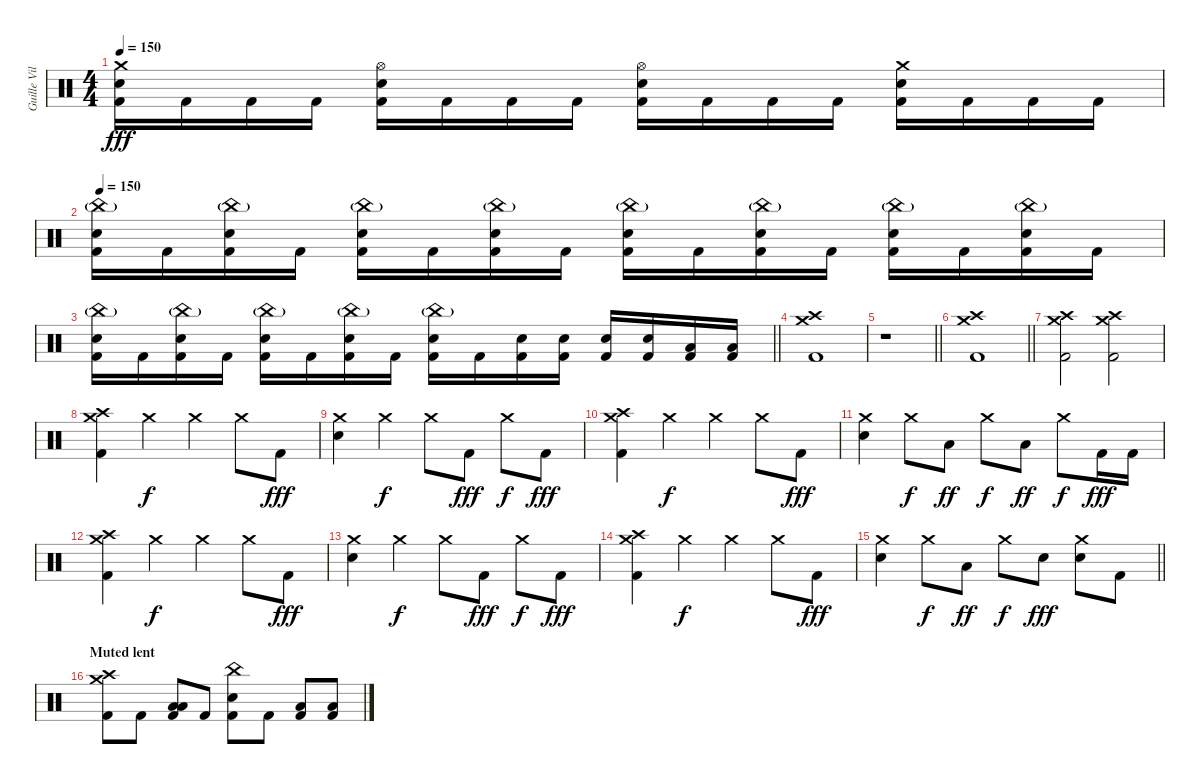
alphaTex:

\track ("Guille Vila" "Guille Vil") {instrument percussion}
\staff {score}
\articulation defaults
\ts (4 4)
\tempo 150
\clef neutral
\ks c
("Crash medium (hit)" "Snare (hit) 2" "Kick (hit) 2").16{dy fff} "Kick (hit) 2".16 "Kick (hit) 2".16 "Kick (hit) 2".16 ("Hi-Hat (open)" "Snare (hit) 2" "Kick (hit) 2").16 "Kick (hit) 2".16 "Kick (hit) 2".16 "Kick (hit) 2".16 ("Hi-Hat (open)" "Snare (hit) 2" "Kick (hit) 2").16 "Kick (hit) 2".16 "Kick (hit) 2".16 "Kick (hit) 2".16 ("Crash medium (hit)" "Snare (hit) 2" "Kick (hit) 2").16 "Kick (hit) 2".16 "Kick (hit) 2".16 "Kick (hit) 2".16 |
\tempo 155
\tempo 150
("China (hit)"{g} "Snare (hit) 2" "Kick (hit) 2").16 "Kick (hit) 2".16 ("China (hit)"{g} "Snare (hit) 2" "Kick (hit) 2").16 "Kick (hit) 2".16 ("China (hit)"{g} "Snare (hit) 2" "Kick (hit) 2").16 "Kick (hit) 2".16 ("China (hit)"{g} "Snare (hit) 2" "Kick (hit) 2").16 "Kick (hit) 2".16 ("China (hit)"{g} "Snare (hit) 2" "Kick (hit) 2").16 "Kick (hit) 2".16 ("China (hit)"{g} "Snare (hit) 2" "Kick (hit) 2").16 "Kick (hit) 2".16 ("China (hit)"{g} "Snare (hit) 2" "Kick (hit) 2").16 "Kick (hit) 2".16 ("China (hit)"{g} "Snare (hit) 2" "Kick (hit) 2").16 "Kick (hit) 2".16 |
\barLineRight lightlight
("China (hit)"{g} "Snare (hit) 2" "Kick (hit) 2").16 "Kick (hit) 2".16 ("China (hit)"{g} "Snare (hit) 2" "Kick (hit) 2").16 "Kick (hit) 2".16 ("China (hit)"{g} "Snare (hit) 2" "Kick (hit) 2").16 "Kick (hit) 2".16 ("China (hit)"{g} "Snare (hit) 2" "Kick (hit) 2").16 "Kick (hit) 2".16 ("China (hit)"{g} "Snare (hit) 2" "Kick (hit) 2").16 "Kick (hit) 2".16 ("Snare (hit) 2" "Kick (hit) 2").16 ("Snare (hit) 2" "Kick (hit) 2").16 ("Snare (hit) 2" "Kick (hit) 2").16 ("Snare (hit) 2" "Kick (hit) 2").16 ("Low Tom (hit)" "Kick (hit) 2").16 ("Low Tom (hit)" "Kick (hit) 2").16 |
("Crash high (hit)" "Crash medium (hit)" "Kick (hit) 2").1 |
\barLineRight lightlight
r.1 |
\section ("" "")
\barLineRight lightlight
("Crash high (hit)" "Crash medium (hit)" "Kick (hit) 2").1 |
\section ("" "")
("Crash high (hit)" "Crash medium (hit)" "Kick (hit) 2").2 ("Crash high (hit)" "Crash medium (hit)" "Kick (hit) 2").2 |
("Crash high (hit)" "Crash medium (hit)" "Kick (hit) 2").4 "Crash medium (hit)".4{dy f} "Crash medium (hit)".4 "Crash medium (hit)".8 "Kick (hit) 2".8{dy fff} |
("Crash medium (hit)" "Snare (hit) 2").4 "Crash medium (hit)".4{dy f} "Crash medium (hit)".8 "Kick (hit) 2".8{dy fff} "Crash medium (hit)".8{dy f} "Kick (hit) 2".8{dy fff} |
("Crash high (hit)" "Crash medium (hit)" "Kick (hit) 2").4 "Crash medium (hit)".4{dy f} "Crash medium (hit)".4 "Crash medium (hit)".8 "Kick (hit) 2".8{dy fff} |
("Crash medium (hit)" "Snare (hit) 2").4 "Crash medium (hit)".8{dy f} "Low Tom (hit)".8{dy ff} "Crash medium (hit)".8{dy f} "Low Floor Tom (hit)".8{dy ff} "Crash medium (hit)".8{dy f} "Kick (hit) 2".16{dy fff} "Kick (hit) 2".16 |
("Crash high (hit)" "Crash medium (hit)" "Kick (hit) 2").4 "Crash medium (hit)".4{dy f} "Crash medium (hit)".4 "Crash medium (hit)".8 "Kick (hit) 2".8{dy fff} |
("Crash medium (hit)" "Snare (hit) 2").4 "Crash medium (hit)".4{dy f} "Crash medium (hit)".8 "Kick (hit) 2".8{dy fff} "Crash medium (hit)".8{dy f} "Kick (hit) 2".8{dy fff} |
("Crash high (hit)" "Crash medium (hit)" "Kick (hit) 2").4 "Crash medium (hit)".4{dy f} "Crash medium (hit)".4 "Crash medium (hit)".8 "Kick (hit) 2".8{dy fff} |
\barLineRight lightlight
("Crash medium (hit)" "Snare (hit) 2").4 "Crash medium (hit)".8{dy f} "Low Tom (hit)".8{dy ff} "Crash medium (hit)".8{dy f} "Snare (hit) 2".8{dy fff} ("Crash medium (hit)" "Snare (hit) 2").8 "Kick (hit) 2".8 |
\section ("" "Muted lent")
("Crash medium (hit)" "Crash high (hit)" "Kick (hit) 2").8 "Kick (hit) 2".8 ("Low Floor Tom (hit)" "Low Tom (hit)" "Kick (hit) 2").8 "Kick (hit) 2".8 ("China (hit)" "Snare (hit) 2" "Kick (hit) 2").8 "Kick (hit) 2".8 ("Low Floor Tom (hit)" "Kick (hit) 2").8 ("Low Tom (hit)" "Kick (hit) 2").8
